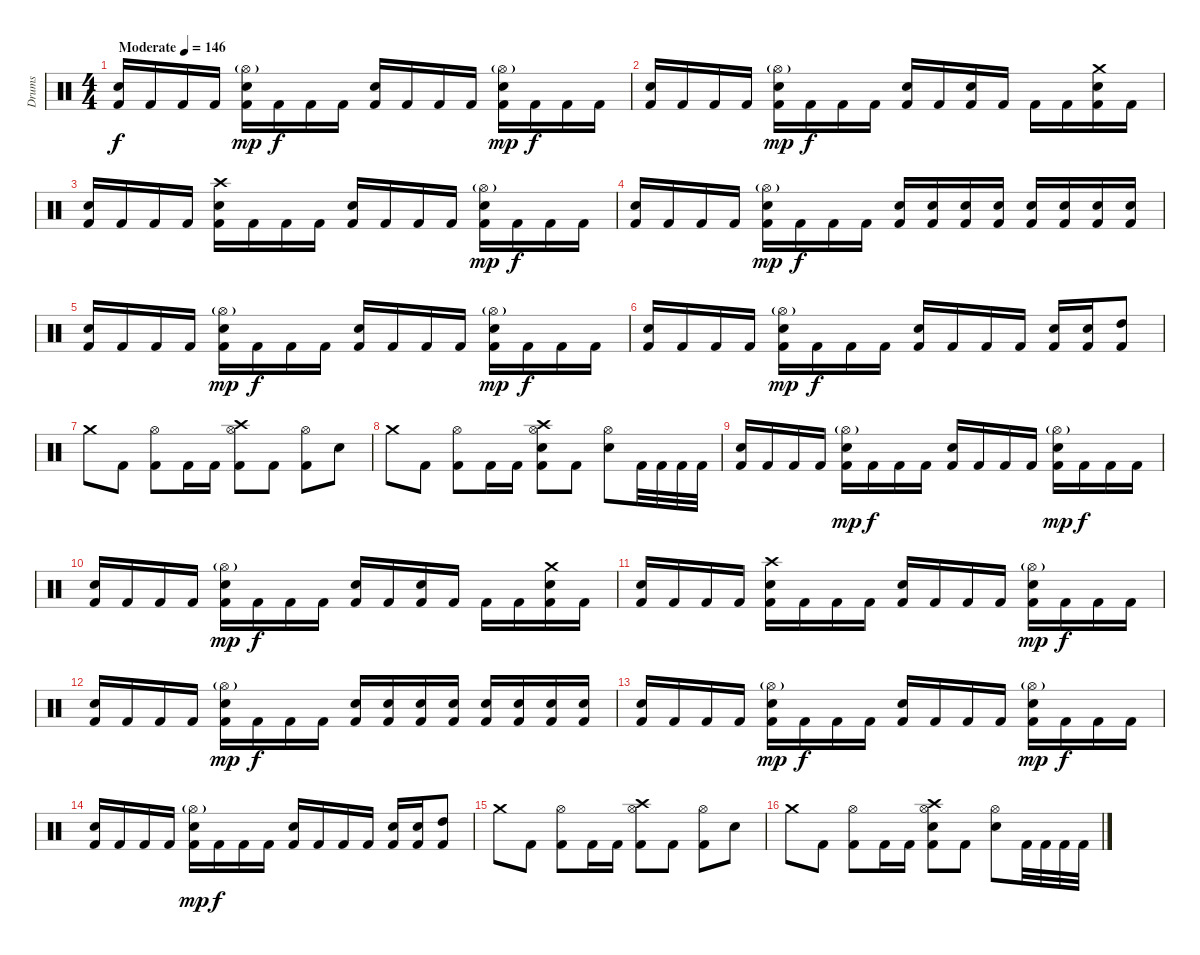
\track ("Drums" "Drums") {instrument percussion}
\staff {score}
\articulation defaults
\ts (4 4)
\tempo (146 "Moderate")
\clef neutral
\ks c
("Snare (hit) 2" "Kick (hit) 2").16{dy f} "Kick (hit) 2".16 "Kick (hit) 2".16 "Kick (hit) 2".16 ("Snare (hit) 2" "Hi-Hat (open)"{g} "Kick (hit) 2").16{dy mp} "Kick (hit) 2".16{dy f} "Kick (hit) 2".16 "Kick (hit) 2".16 ("Snare (hit) 2" "Kick (hit) 2").16 "Kick (hit) 2".16 "Kick (hit) 2".16 "Kick (hit) 2".16 ("Snare (hit) 2" "Hi-Hat (open)"{g} "Kick (hit) 2").16{dy mp} "Kick (hit) 2".16{dy f} "Kick (hit) 2".16 "Kick (hit) 2".16 |
("Snare (hit) 2" "Kick (hit) 2").16 "Kick (hit) 2".16 "Kick (hit) 2".16 "Kick (hit) 2".16 ("Snare (hit) 2" "Hi-Hat (open)"{g} "Kick (hit) 2").16{dy mp} "Kick (hit) 2".16{dy f} "Kick (hit) 2".16 "Kick (hit) 2".16 ("Snare (hit) 2" "Kick (hit) 2").16 "Kick (hit) 2".16 ("Snare (hit) 2" "Kick (hit) 2").16 "Kick (hit) 2".16 "Kick (hit) 2".16 "Kick (hit) 2".16 ("Crash medium (hit)" "Snare (hit) 2" "Kick (hit) 2").16 "Kick (hit) 2".16 |
("Snare (hit) 2" "Kick (hit) 2").16 "Kick (hit) 2".16 "Kick (hit) 2".16 "Kick (hit) 2".16 ("Crash high (hit)" "Snare (hit) 2" "Kick (hit) 2").16 "Kick (hit) 2".16 "Kick (hit) 2".16 "Kick (hit) 2".16 ("Snare (hit) 2" "Kick (hit) 2").16 "Kick (hit) 2".16 "Kick (hit) 2".16 "Kick (hit) 2".16 ("Snare (hit) 2" "Hi-Hat (open)"{g} "Kick (hit) 2").16{dy mp} "Kick (hit) 2".16{dy f} "Kick (hit) 2".16 "Kick (hit) 2".16 |
("Snare (hit) 2" "Kick (hit) 2").16 "Kick (hit) 2".16 "Kick (hit) 2".16 "Kick (hit) 2".16 ("Snare (hit) 2" "Hi-Hat (open)"{g} "Kick (hit) 2").16{dy mp} "Kick (hit) 2".16{dy f} "Kick (hit) 2".16 "Kick (hit) 2".16 ("Snare (hit) 2" "Kick (hit) 2").16 ("Snare (hit) 2" "Kick (hit) 2").16 ("Snare (hit) 2" "Kick (hit) 2").16 ("Snare (hit) 2" "Kick (hit) 2").16 ("Snare (hit) 2" "Kick (hit) 2").16 ("Snare (hit) 2" "Kick (hit) 2").16 ("Snare (hit) 2" "Kick (hit) 2").16 ("Snare (hit) 2" "Kick (hit) 2").16 |
("Snare (hit) 2" "Kick (hit) 2").16 "Kick (hit) 2".16 "Kick (hit) 2".16 "Kick (hit) 2".16 ("Snare (hit) 2" "Hi-Hat (open)"{g} "Kick (hit) 2").16{dy mp} "Kick (hit) 2".16{dy f} "Kick (hit) 2".16 "Kick (hit) 2".16 ("Snare (hit) 2" "Kick (hit) 2").16 "Kick (hit) 2".16 "Kick (hit) 2".16 "Kick (hit) 2".16 ("Snare (hit) 2" "Hi-Hat (open)"{g} "Kick (hit) 2").16{dy mp} "Kick (hit) 2".16{dy f} "Kick (hit) 2".16 "Kick (hit) 2".16 |
("Snare (hit) 2" "Kick (hit) 2").16 "Kick (hit) 2".16 "Kick (hit) 2".16 "Kick (hit) 2".16 ("Snare (hit) 2" "Hi-Hat (open)"{g} "Kick (hit) 2").16{dy mp} "Kick (hit) 2".16{dy f} "Kick (hit) 2".16 "Kick (hit) 2".16 ("Snare (hit) 2" "Kick (hit) 2").16 "Kick (hit) 2".16 "Kick (hit) 2".16 "Kick (hit) 2".16 ("Snare (hit) 2" "Kick (hit) 2").16 ("Snare (hit) 2" "Kick (hit) 2").16 ("High Tom (hit)" "Kick (hit) 2").8 |
"Crash medium (hit)".8 "Kick (hit) 2".8 ("Hi-Hat (open)" "Kick (hit) 2").8 "Kick (hit) 2".16 "Kick (hit) 2".16 ("Crash high (hit)" "Hi-Hat (open)" "Kick (hit) 2").8 "Kick (hit) 2".8 ("Hi-Hat (open)" "Kick (hit) 2").8 "Snare (hit) 2".8 |
"Crash medium (hit)".8 "Kick (hit) 2".8 ("Hi-Hat (open)" "Kick (hit) 2").8 "Kick (hit) 2".16 "Kick (hit) 2".16 ("Crash high (hit)" "Hi-Hat (open)" "Snare (hit) 2" "Kick (hit) 2").8 "Kick (hit) 2".8 ("Hi-Hat (open)" "Snare (hit) 2").8 "Kick (hit) 2".32 "Kick (hit) 2".32 "Kick (hit) 2".32 "Kick (hit) 2".32 |
("Snare (hit) 2" "Kick (hit) 2").16 "Kick (hit) 2".16 "Kick (hit) 2".16 "Kick (hit) 2".16 ("Snare (hit) 2" "Hi-Hat (open)"{g} "Kick (hit) 2").16{dy mp} "Kick (hit) 2".16{dy f} "Kick (hit) 2".16 "Kick (hit) 2".16 ("Snare (hit) 2" "Kick (hit) 2").16 "Kick (hit) 2".16 "Kick (hit) 2".16 "Kick (hit) 2".16 ("Snare (hit) 2" "Hi-Hat (open)"{g} "Kick (hit) 2").16{dy mp} "Kick (hit) 2".16{dy f} "Kick (hit) 2".16 "Kick (hit) 2".16 |
("Snare (hit) 2" "Kick (hit) 2").16 "Kick (hit) 2".16 "Kick (hit) 2".16 "Kick (hit) 2".16 ("Snare (hit) 2" "Hi-Hat (open)"{g} "Kick (hit) 2").16{dy mp} "Kick (hit) 2".16{dy f} "Kick (hit) 2".16 "Kick (hit) 2".16 ("Snare (hit) 2" "Kick (hit) 2").16 "Kick (hit) 2".16 ("Snare (hit) 2" "Kick (hit) 2").16 "Kick (hit) 2".16 "Kick (hit) 2".16 "Kick (hit) 2".16 ("Crash medium (hit)" "Snare (hit) 2" "Kick (hit) 2").16 "Kick (hit) 2".16 |
("Snare (hit) 2" "Kick (hit) 2").16 "Kick (hit) 2".16 "Kick (hit) 2".16 "Kick (hit) 2".16 ("Crash high (hit)" "Snare (hit) 2" "Kick (hit) 2").16 "Kick (hit) 2".16 "Kick (hit) 2".16 "Kick (hit) 2".16 ("Snare (hit) 2" "Kick (hit) 2").16 "Kick (hit) 2".16 "Kick (hit) 2".16 "Kick (hit) 2".16 ("Snare (hit) 2" "Hi-Hat (open)"{g} "Kick (hit) 2").16{dy mp} "Kick (hit) 2".16{dy f} "Kick (hit) 2".16 "Kick (hit) 2".16 |
("Snare (hit) 2" "Kick (hit) 2").16 "Kick (hit) 2".16 "Kick (hit) 2".16 "Kick (hit) 2".16 ("Snare (hit) 2" "Hi-Hat (open)"{g} "Kick (hit) 2").16{dy mp} "Kick (hit) 2".16{dy f} "Kick (hit) 2".16 "Kick (hit) 2".16 ("Snare (hit) 2" "Kick (hit) 2").16 ("Snare (hit) 2" "Kick (hit) 2").16 ("Snare (hit) 2" "Kick (hit) 2").16 ("Snare (hit) 2" "Kick (hit) 2").16 ("Snare (hit) 2" "Kick (hit) 2").16 ("Snare (hit) 2" "Kick (hit) 2").16 ("Snare (hit) 2" "Kick (hit) 2").16 ("Snare (hit) 2" "Kick (hit) 2").16 |
("Snare (hit) 2" "Kick (hit) 2").16 "Kick (hit) 2".16 "Kick (hit) 2".16 "Kick (hit) 2".16 ("Snare (hit) 2" "Hi-Hat (open)"{g} "Kick (hit) 2").16{dy mp} "Kick (hit) 2".16{dy f} "Kick (hit) 2".16 "Kick (hit) 2".16 ("Snare (hit) 2" "Kick (hit) 2").16 "Kick (hit) 2".16 "Kick (hit) 2".16 "Kick (hit) 2".16 ("Snare (hit) 2" "Hi-Hat (open)"{g} "Kick (hit) 2").16{dy mp} "Kick (hit) 2".16{dy f} "Kick (hit) 2".16 "Kick (hit) 2".16 |
("Snare (hit) 2" "Kick (hit) 2").16 "Kick (hit) 2".16 "Kick (hit) 2".16 "Kick (hit) 2".16 ("Snare (hit) 2" "Hi-Hat (open)"{g} "Kick (hit) 2").16{dy mp} "Kick (hit) 2".16{dy f} "Kick (hit) 2".16 "Kick (hit) 2".16 ("Snare (hit) 2" "Kick (hit) 2").16 "Kick (hit) 2".16 "Kick (hit) 2".16 "Kick (hit) 2".16 ("Snare (hit) 2" "Kick (hit) 2").16 ("Snare (hit) 2" "Kick (hit) 2").16 ("High Tom (hit)" "Kick (hit) 2").8 |
"Crash medium (hit)".8 "Kick (hit) 2".8 ("Hi-Hat (open)" "Kick (hit) 2").8 "Kick (hit) 2".16 "Kick (hit) 2".16 ("Crash high (hit)" "Hi-Hat (open)" "Kick (hit) 2").8 "Kick (hit) 2".8 ("Hi-Hat (open)" "Kick (hit) 2").8 "Snare (hit) 2".8 |
"Crash medium (hit)".8 "Kick (hit) 2".8 ("Hi-Hat (open)" "Kick (hit) 2").8 "Kick (hit) 2".16 "Kick (hit) 2".16 ("Crash high (hit)" "Hi-Hat (open)" "Snare (hit) 2" "Kick (hit) 2").8 "Kick (hit) 2".8 ("Hi-Hat (open)" "Snare (hit) 2").8 "Kick (hit) 2".32 "Kick (hit) 2".32 "Kick (hit) 2".32 "Kick (hit) 2".32
